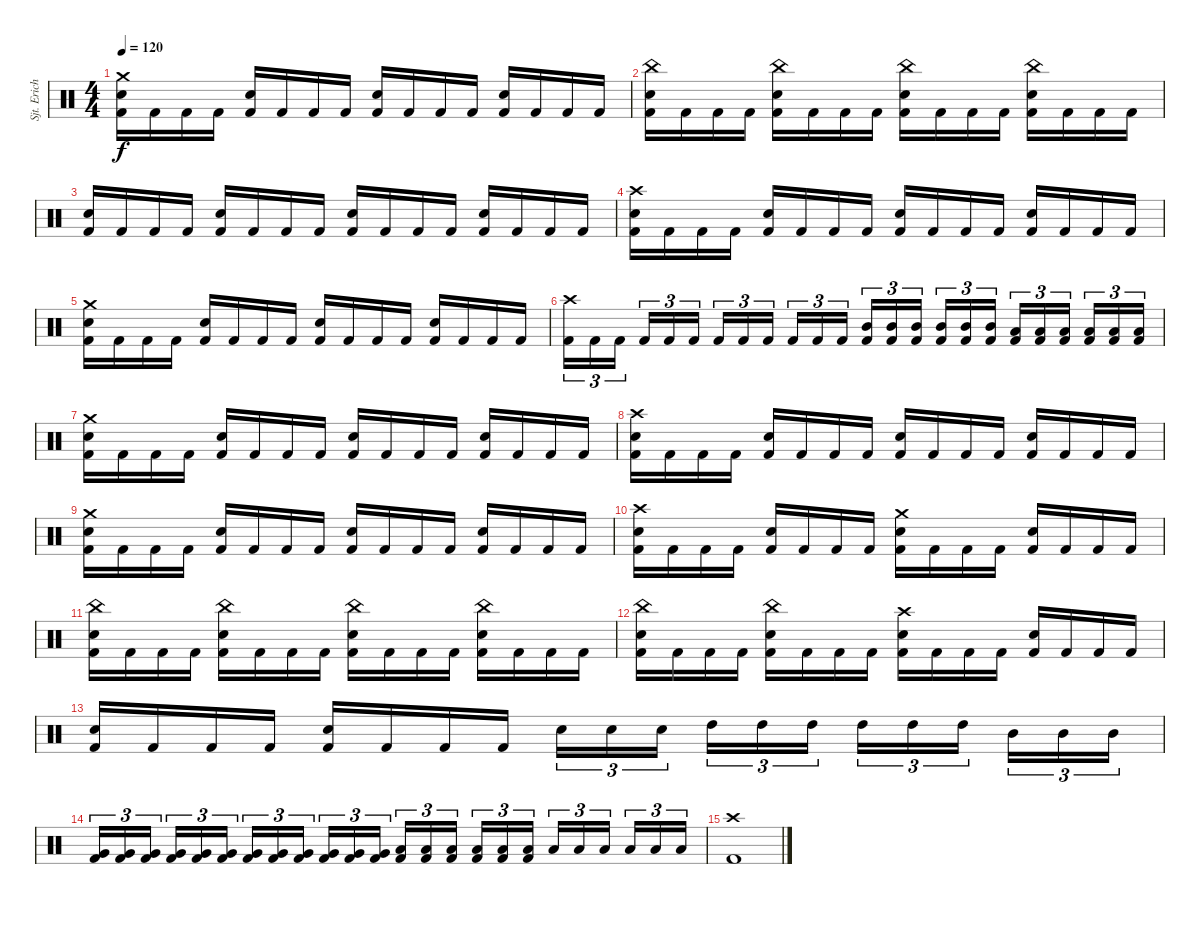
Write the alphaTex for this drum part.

\track ("Sjt. Erichsen" "Sjt. Erich") {instrument percussion}
\staff {score}
\articulation defaults
\ts (4 4)
\tempo 120
\clef neutral
\ks c
("Crash medium (hit)" "Electric Snare (hit)" "Kick (hit) 2").16{dy f} "Kick (hit) 2".16 "Kick (hit) 2".16 "Kick (hit) 2".16 ("Electric Snare (hit)" "Kick (hit) 2").16 "Kick (hit) 2".16 "Kick (hit) 2".16 "Kick (hit) 2".16 ("Electric Snare (hit)" "Kick (hit) 2").16 "Kick (hit) 2".16 "Kick (hit) 2".16 "Kick (hit) 2".16 ("Electric Snare (hit)" "Kick (hit) 2").16 "Kick (hit) 2".16 "Kick (hit) 2".16 "Kick (hit) 2".16 |
("China (hit)" "Electric Snare (hit)" "Kick (hit) 2").16 "Kick (hit) 2".16 "Kick (hit) 2".16 "Kick (hit) 2".16 ("China (hit)" "Electric Snare (hit)" "Kick (hit) 2").16 "Kick (hit) 2".16 "Kick (hit) 2".16 "Kick (hit) 2".16 ("China (hit)" "Electric Snare (hit)" "Kick (hit) 2").16 "Kick (hit) 2".16 "Kick (hit) 2".16 "Kick (hit) 2".16 ("China (hit)" "Electric Snare (hit)" "Kick (hit) 2").16 "Kick (hit) 2".16 "Kick (hit) 2".16 "Kick (hit) 2".16 |
("Electric Snare (hit)" "Kick (hit) 2").16 "Kick (hit) 2".16 "Kick (hit) 2".16 "Kick (hit) 2".16 ("Electric Snare (hit)" "Kick (hit) 2").16 "Kick (hit) 2".16 "Kick (hit) 2".16 "Kick (hit) 2".16 ("Electric Snare (hit)" "Kick (hit) 2").16 "Kick (hit) 2".16 "Kick (hit) 2".16 "Kick (hit) 2".16 ("Electric Snare (hit)" "Kick (hit) 2").16 "Kick (hit) 2".16 "Kick (hit) 2".16 "Kick (hit) 2".16 |
("Crash high (hit)" "Electric Snare (hit)" "Kick (hit) 2").16 "Kick (hit) 2".16 "Kick (hit) 2".16 "Kick (hit) 2".16 ("Electric Snare (hit)" "Kick (hit) 2").16 "Kick (hit) 2".16 "Kick (hit) 2".16 "Kick (hit) 2".16 ("Electric Snare (hit)" "Kick (hit) 2").16 "Kick (hit) 2".16 "Kick (hit) 2".16 "Kick (hit) 2".16 ("Electric Snare (hit)" "Kick (hit) 2").16 "Kick (hit) 2".16 "Kick (hit) 2".16 "Kick (hit) 2".16 |
("Crash medium (hit)" "Electric Snare (hit)" "Kick (hit) 2").16 "Kick (hit) 2".16 "Kick (hit) 2".16 "Kick (hit) 2".16 ("Electric Snare (hit)" "Kick (hit) 2").16 "Kick (hit) 2".16 "Kick (hit) 2".16 "Kick (hit) 2".16 ("Electric Snare (hit)" "Kick (hit) 2").16 "Kick (hit) 2".16 "Kick (hit) 2".16 "Kick (hit) 2".16 ("Electric Snare (hit)" "Kick (hit) 2").16 "Kick (hit) 2".16 "Kick (hit) 2".16 "Kick (hit) 2".16 |
("Crash high (hit)" "Kick (hit) 2").16{tu (3 2)} "Kick (hit) 2".16{tu (3 2)} "Kick (hit) 2".16{tu (3 2)} "Kick (hit) 2".16{tu (3 2)} "Kick (hit) 2".16{tu (3 2)} "Kick (hit) 2".16{tu (3 2)} "Kick (hit) 2".16{tu (3 2)} "Kick (hit) 2".16{tu (3 2)} "Kick (hit) 2".16{tu (3 2)} "Kick (hit) 2".16{tu (3 2)} "Kick (hit) 2".16{tu (3 2)} "Kick (hit) 2".16{tu (3 2)} ("Mid Tom (hit)" "Kick (hit) 2").16{tu (3 2)} ("Mid Tom (hit)" "Kick (hit) 2").16{tu (3 2)} ("Mid Tom (hit)" "Kick (hit) 2").16{tu (3 2)} ("Mid Tom (hit)" "Kick (hit) 2").16{tu (3 2)} ("Mid Tom (hit)" "Kick (hit) 2").16{tu (3 2)} ("Mid Tom (hit)" "Kick (hit) 2").16{tu (3 2)} ("Low Tom (hit)" "Kick (hit) 2").16{tu (3 2)} ("Low Tom (hit)" "Kick (hit) 2").16{tu (3 2)} ("Low Tom (hit)" "Kick (hit) 2").16{tu (3 2)} ("Low Tom (hit)" "Kick (hit) 2").16{tu (3 2)} ("Low Tom (hit)" "Kick (hit) 2").16{tu (3 2)} ("Low Tom (hit)" "Kick (hit) 2").16{tu (3 2)} |
("Crash medium (hit)" "Electric Snare (hit)" "Kick (hit) 2").16 "Kick (hit) 2".16 "Kick (hit) 2".16 "Kick (hit) 2".16 ("Electric Snare (hit)" "Kick (hit) 2").16 "Kick (hit) 2".16 "Kick (hit) 2".16 "Kick (hit) 2".16 ("Electric Snare (hit)" "Kick (hit) 2").16 "Kick (hit) 2".16 "Kick (hit) 2".16 "Kick (hit) 2".16 ("Electric Snare (hit)" "Kick (hit) 2").16 "Kick (hit) 2".16 "Kick (hit) 2".16 "Kick (hit) 2".16 |
("Crash high (hit)" "Electric Snare (hit)" "Kick (hit) 2").16 "Kick (hit) 2".16 "Kick (hit) 2".16 "Kick (hit) 2".16 ("Electric Snare (hit)" "Kick (hit) 2").16 "Kick (hit) 2".16 "Kick (hit) 2".16 "Kick (hit) 2".16 ("Electric Snare (hit)" "Kick (hit) 2").16 "Kick (hit) 2".16 "Kick (hit) 2".16 "Kick (hit) 2".16 ("Electric Snare (hit)" "Kick (hit) 2").16 "Kick (hit) 2".16 "Kick (hit) 2".16 "Kick (hit) 2".16 |
("Crash medium (hit)" "Electric Snare (hit)" "Kick (hit) 2").16 "Kick (hit) 2".16 "Kick (hit) 2".16 "Kick (hit) 2".16 ("Electric Snare (hit)" "Kick (hit) 2").16 "Kick (hit) 2".16 "Kick (hit) 2".16 "Kick (hit) 2".16 ("Electric Snare (hit)" "Kick (hit) 2").16 "Kick (hit) 2".16 "Kick (hit) 2".16 "Kick (hit) 2".16 ("Electric Snare (hit)" "Kick (hit) 2").16 "Kick (hit) 2".16 "Kick (hit) 2".16 "Kick (hit) 2".16 |
("Crash high (hit)" "Electric Snare (hit)" "Kick (hit) 2").16 "Kick (hit) 2".16 "Kick (hit) 2".16 "Kick (hit) 2".16 ("Electric Snare (hit)" "Kick (hit) 2").16 "Kick (hit) 2".16 "Kick (hit) 2".16 "Kick (hit) 2".16 ("Crash medium (hit)" "Electric Snare (hit)" "Kick (hit) 2").16 "Kick (hit) 2".16 "Kick (hit) 2".16 "Kick (hit) 2".16 ("Electric Snare (hit)" "Kick (hit) 2").16 "Kick (hit) 2".16 "Kick (hit) 2".16 "Kick (hit) 2".16 |
("China (hit)" "Electric Snare (hit)" "Kick (hit) 2").16 "Kick (hit) 2".16 "Kick (hit) 2".16 "Kick (hit) 2".16 ("China (hit)" "Electric Snare (hit)" "Kick (hit) 2").16 "Kick (hit) 2".16 "Kick (hit) 2".16 "Kick (hit) 2".16 ("China (hit)" "Electric Snare (hit)" "Kick (hit) 2").16 "Kick (hit) 2".16 "Kick (hit) 2".16 "Kick (hit) 2".16 ("China (hit)" "Electric Snare (hit)" "Kick (hit) 2").16 "Kick (hit) 2".16 "Kick (hit) 2".16 "Kick (hit) 2".16 |
("China (hit)" "Electric Snare (hit)" "Kick (hit) 2").16 "Kick (hit) 2".16 "Kick (hit) 2".16 "Kick (hit) 2".16 ("China (hit)" "Electric Snare (hit)" "Kick (hit) 2").16 "Kick (hit) 2".16 "Kick (hit) 2".16 "Kick (hit) 2".16 ("Crash high (hit)" "Electric Snare (hit)" "Kick (hit) 2").16 "Kick (hit) 2".16 "Kick (hit) 2".16 "Kick (hit) 2".16 ("Electric Snare (hit)" "Kick (hit) 2").16 "Kick (hit) 2".16 "Kick (hit) 2".16 "Kick (hit) 2".16 |
("Electric Snare (hit)" "Kick (hit) 2").16 "Kick (hit) 2".16 "Kick (hit) 2".16 "Kick (hit) 2".16 ("Electric Snare (hit)" "Kick (hit) 2").16 "Kick (hit) 2".16 "Kick (hit) 2".16 "Kick (hit) 2".16 "Electric Snare (hit)".16{tu (3 2)} "Electric Snare (hit)".16{tu (3 2)} "Electric Snare (hit)".16{tu (3 2)} "High Tom (hit)".16{tu (3 2)} "High Tom (hit)".16{tu (3 2)} "High Tom (hit)".16{tu (3 2)} "High Tom (hit)".16{tu (3 2)} "High Tom (hit)".16{tu (3 2)} "High Tom (hit)".16{tu (3 2)} "Mid Tom (hit)".16{tu (3 2)} "Mid Tom (hit)".16{tu (3 2)} "Mid Tom (hit)".16{tu (3 2)} |
("Very Low Tom (hit)" "Kick (hit) 2").16{tu (3 2)} ("Very Low Tom (hit)" "Kick (hit) 2").16{tu (3 2)} ("Very Low Tom (hit)" "Kick (hit) 2").16{tu (3 2)} ("Very Low Tom (hit)" "Kick (hit) 2").16{tu (3 2)} ("Very Low Tom (hit)" "Kick (hit) 2").16{tu (3 2)} ("Very Low Tom (hit)" "Kick (hit) 2").16{tu (3 2)} ("Very Low Tom (hit)" "Kick (hit) 2").16{tu (3 2)} ("Very Low Tom (hit)" "Kick (hit) 2").16{tu (3 2)} ("Very Low Tom (hit)" "Kick (hit) 2").16{tu (3 2)} ("Very Low Tom (hit)" "Kick (hit) 2").16{tu (3 2)} ("Very Low Tom (hit)" "Kick (hit) 2").16{tu (3 2)} ("Very Low Tom (hit)" "Kick (hit) 2").16{tu (3 2)} ("Low Floor Tom (hit)" "Kick (hit) 2").16{tu (3 2)} ("Low Floor Tom (hit)" "Kick (hit) 2").16{tu (3 2)} ("Low Floor Tom (hit)" "Kick (hit) 2").16{tu (3 2)} ("Low Floor Tom (hit)" "Kick (hit) 2").16{tu (3 2)} ("Low Floor Tom (hit)" "Kick (hit) 2").16{tu (3 2)} ("Low Floor Tom (hit)" "Kick (hit) 2").16{tu (3 2)} "Low Tom (hit)".16{tu (3 2)} "Low Tom (hit)".16{tu (3 2)} "Low Tom (hit)".16{tu (3 2)} "Low Tom (hit)".16{tu (3 2)} "Low Tom (hit)".16{tu (3 2)} "Low Tom (hit)".16{tu (3 2)} |
("Crash high (hit)" "Kick (hit) 2").1
